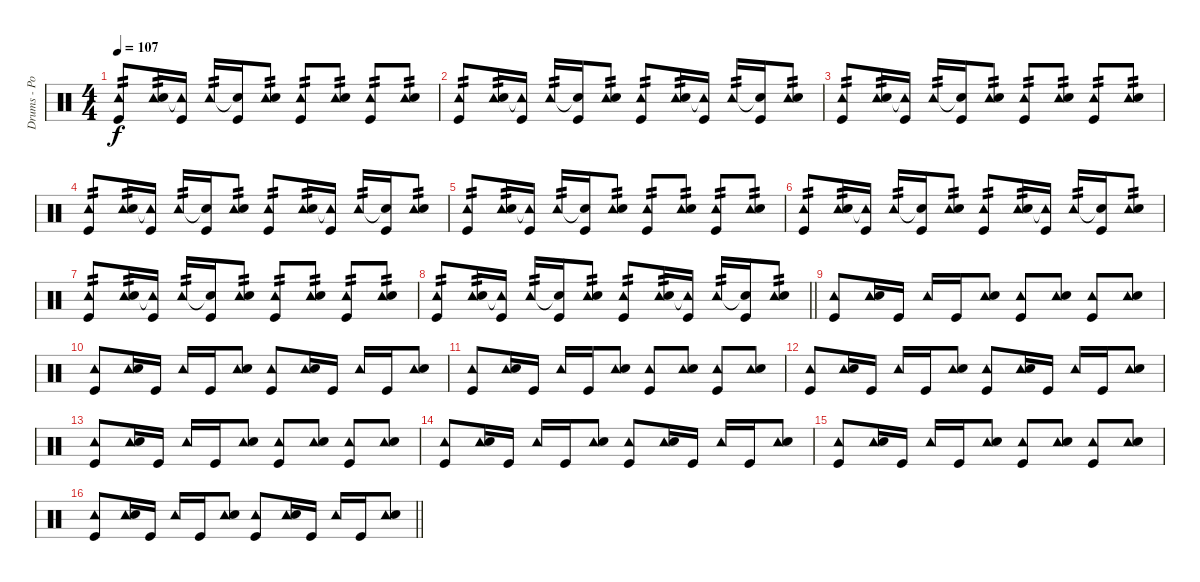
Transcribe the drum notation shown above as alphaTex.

\track ("Drums - Possibly M. Shinoda" "Drums - Po") {instrument percussion}
\staff {score}
\articulation defaults
\ts (4 4)
\tempo 107
\clef neutral
\ks c
("Tambourine (hit)" "Kick (hit)").8{tp 2 dy f} ("Tambourine (hit)" "Electric Snare (hit)").16{tp 2} ("Tambourine (hit)"{t} "Kick (hit)").16 "Tambourine (hit)".16{tp 2} ("Snare (hit)"{t} "Kick (hit)").16 ("Tambourine (hit)" "Electric Snare (hit)").8{tp 2} ("Tambourine (hit)" "Kick (hit)").8{tp 2} ("Tambourine (hit)" "Electric Snare (hit)").8{tp 2} ("Tambourine (hit)" "Kick (hit)").8{tp 2} ("Tambourine (hit)" "Electric Snare (hit)").8{tp 2} |
("Tambourine (hit)" "Kick (hit)").8{tp 2} ("Tambourine (hit)" "Electric Snare (hit)").16{tp 2} ("Tambourine (hit)"{t} "Kick (hit)").16 "Tambourine (hit)".16{tp 2} ("Snare (hit)"{t} "Kick (hit)").16 ("Tambourine (hit)" "Electric Snare (hit)").8{tp 2} ("Tambourine (hit)" "Kick (hit)").8{tp 2} ("Tambourine (hit)" "Electric Snare (hit)").16{tp 2} ("Tambourine (hit)"{t} "Kick (hit)").16 "Tambourine (hit)".16{tp 2} ("Snare (hit)"{t} "Kick (hit)").16 ("Tambourine (hit)" "Electric Snare (hit)").8{tp 2} |
("Tambourine (hit)" "Kick (hit)").8{tp 2} ("Tambourine (hit)" "Electric Snare (hit)").16{tp 2} ("Tambourine (hit)"{t} "Kick (hit)").16 "Tambourine (hit)".16{tp 2} ("Snare (hit)"{t} "Kick (hit)").16 ("Tambourine (hit)" "Electric Snare (hit)").8{tp 2} ("Tambourine (hit)" "Kick (hit)").8{tp 2} ("Tambourine (hit)" "Electric Snare (hit)").8{tp 2} ("Tambourine (hit)" "Kick (hit)").8{tp 2} ("Tambourine (hit)" "Electric Snare (hit)").8{tp 2} |
("Tambourine (hit)" "Kick (hit)").8{tp 2} ("Tambourine (hit)" "Electric Snare (hit)").16{tp 2} ("Tambourine (hit)"{t} "Kick (hit)").16 "Tambourine (hit)".16{tp 2} ("Snare (hit)"{t} "Kick (hit)").16 ("Tambourine (hit)" "Electric Snare (hit)").8{tp 2} ("Tambourine (hit)" "Kick (hit)").8{tp 2} ("Tambourine (hit)" "Electric Snare (hit)").16{tp 2} ("Tambourine (hit)"{t} "Kick (hit)").16 "Tambourine (hit)".16{tp 2} ("Snare (hit)"{t} "Kick (hit)").16 ("Tambourine (hit)" "Electric Snare (hit)").8{tp 2} |
("Tambourine (hit)" "Kick (hit)").8{tp 2} ("Tambourine (hit)" "Electric Snare (hit)").16{tp 2} ("Tambourine (hit)"{t} "Kick (hit)").16 "Tambourine (hit)".16{tp 2} ("Snare (hit)"{t} "Kick (hit)").16 ("Tambourine (hit)" "Electric Snare (hit)").8{tp 2} ("Tambourine (hit)" "Kick (hit)").8{tp 2} ("Tambourine (hit)" "Electric Snare (hit)").8{tp 2} ("Tambourine (hit)" "Kick (hit)").8{tp 2} ("Tambourine (hit)" "Electric Snare (hit)").8{tp 2} |
("Tambourine (hit)" "Kick (hit)").8{tp 2} ("Tambourine (hit)" "Electric Snare (hit)").16{tp 2} ("Tambourine (hit)"{t} "Kick (hit)").16 "Tambourine (hit)".16{tp 2} ("Snare (hit)"{t} "Kick (hit)").16 ("Tambourine (hit)" "Electric Snare (hit)").8{tp 2} ("Tambourine (hit)" "Kick (hit)").8{tp 2} ("Tambourine (hit)" "Electric Snare (hit)").16{tp 2} ("Tambourine (hit)"{t} "Kick (hit)").16 "Tambourine (hit)".16{tp 2} ("Snare (hit)"{t} "Kick (hit)").16 ("Tambourine (hit)" "Electric Snare (hit)").8{tp 2} |
("Tambourine (hit)" "Kick (hit)").8{tp 2} ("Tambourine (hit)" "Electric Snare (hit)").16{tp 2} ("Tambourine (hit)"{t} "Kick (hit)").16 "Tambourine (hit)".16{tp 2} ("Snare (hit)"{t} "Kick (hit)").16 ("Tambourine (hit)" "Electric Snare (hit)").8{tp 2} ("Tambourine (hit)" "Kick (hit)").8{tp 2} ("Tambourine (hit)" "Electric Snare (hit)").8{tp 2} ("Tambourine (hit)" "Kick (hit)").8{tp 2} ("Tambourine (hit)" "Electric Snare (hit)").8{tp 2} |
\barLineRight lightlight
("Tambourine (hit)" "Kick (hit)").8{tp 2} ("Tambourine (hit)" "Electric Snare (hit)").16{tp 2} ("Tambourine (hit)"{t} "Kick (hit)").16 "Tambourine (hit)".16{tp 2} ("Snare (hit)"{t} "Kick (hit)").16 ("Tambourine (hit)" "Electric Snare (hit)").8{tp 2} ("Tambourine (hit)" "Kick (hit)").8{tp 2} ("Tambourine (hit)" "Electric Snare (hit)").16{tp 2} ("Tambourine (hit)"{t} "Kick (hit)").16 "Tambourine (hit)".16{tp 2} ("Snare (hit)"{t} "Kick (hit)").16 ("Tambourine (hit)" "Electric Snare (hit)").8{tp 2} |
("Tambourine (hit)" "Kick (hit)").8 ("Tambourine (hit)" "Electric Snare (hit)").16 "Kick (hit)".16 "Tambourine (hit)".16 "Kick (hit)".16 ("Tambourine (hit)" "Electric Snare (hit)").8 ("Tambourine (hit)" "Kick (hit)").8 ("Tambourine (hit)" "Electric Snare (hit)").8 ("Tambourine (hit)" "Kick (hit)").8 ("Tambourine (hit)" "Electric Snare (hit)").8 |
("Tambourine (hit)" "Kick (hit)").8 ("Tambourine (hit)" "Electric Snare (hit)").16 "Kick (hit)".16 "Tambourine (hit)".16 "Kick (hit)".16 ("Tambourine (hit)" "Electric Snare (hit)").8 ("Tambourine (hit)" "Kick (hit)").8 ("Tambourine (hit)" "Electric Snare (hit)").16 "Kick (hit)".16 "Tambourine (hit)".16 "Kick (hit)".16 ("Tambourine (hit)" "Electric Snare (hit)").8 |
("Tambourine (hit)" "Kick (hit)").8 ("Tambourine (hit)" "Electric Snare (hit)").16 "Kick (hit)".16 "Tambourine (hit)".16 "Kick (hit)".16 ("Tambourine (hit)" "Electric Snare (hit)").8 ("Tambourine (hit)" "Kick (hit)").8 ("Tambourine (hit)" "Electric Snare (hit)").8 ("Tambourine (hit)" "Kick (hit)").8 ("Tambourine (hit)" "Electric Snare (hit)").8 |
("Tambourine (hit)" "Kick (hit)").8 ("Tambourine (hit)" "Electric Snare (hit)").16 "Kick (hit)".16 "Tambourine (hit)".16 "Kick (hit)".16 ("Tambourine (hit)" "Electric Snare (hit)").8 ("Tambourine (hit)" "Kick (hit)").8 ("Tambourine (hit)" "Electric Snare (hit)").16 "Kick (hit)".16 "Tambourine (hit)".16 "Kick (hit)".16 ("Tambourine (hit)" "Electric Snare (hit)").8 |
("Tambourine (hit)" "Kick (hit)").8 ("Tambourine (hit)" "Electric Snare (hit)").16 "Kick (hit)".16 "Tambourine (hit)".16 "Kick (hit)".16 ("Tambourine (hit)" "Electric Snare (hit)").8 ("Tambourine (hit)" "Kick (hit)").8 ("Tambourine (hit)" "Electric Snare (hit)").8 ("Tambourine (hit)" "Kick (hit)").8 ("Tambourine (hit)" "Electric Snare (hit)").8 |
("Tambourine (hit)" "Kick (hit)").8 ("Tambourine (hit)" "Electric Snare (hit)").16 "Kick (hit)".16 "Tambourine (hit)".16 "Kick (hit)".16 ("Tambourine (hit)" "Electric Snare (hit)").8 ("Tambourine (hit)" "Kick (hit)").8 ("Tambourine (hit)" "Electric Snare (hit)").16 "Kick (hit)".16 "Tambourine (hit)".16 "Kick (hit)".16 ("Tambourine (hit)" "Electric Snare (hit)").8 |
("Tambourine (hit)" "Kick (hit)").8 ("Tambourine (hit)" "Electric Snare (hit)").16 "Kick (hit)".16 "Tambourine (hit)".16 "Kick (hit)".16 ("Tambourine (hit)" "Electric Snare (hit)").8 ("Tambourine (hit)" "Kick (hit)").8 ("Tambourine (hit)" "Electric Snare (hit)").8 ("Tambourine (hit)" "Kick (hit)").8 ("Tambourine (hit)" "Electric Snare (hit)").8 |
\barLineRight lightlight
("Tambourine (hit)" "Kick (hit)").8 ("Tambourine (hit)" "Electric Snare (hit)").16 "Kick (hit)".16 "Tambourine (hit)".16 "Kick (hit)".16 ("Tambourine (hit)" "Electric Snare (hit)").8 ("Tambourine (hit)" "Kick (hit)").8 ("Tambourine (hit)" "Electric Snare (hit)").16 "Kick (hit)".16 "Tambourine (hit)".16 "Kick (hit)".16 ("Tambourine (hit)" "Electric Snare (hit)").8
